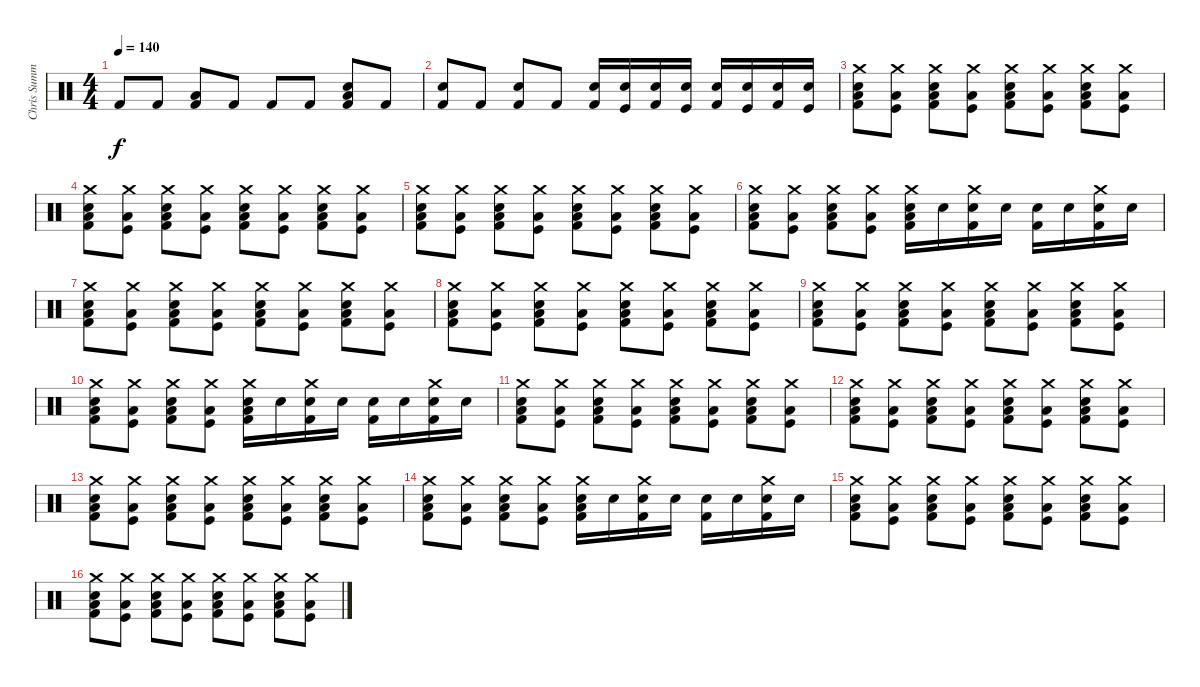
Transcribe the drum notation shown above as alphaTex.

\track ("Chris Summers" "Chris Summ") {instrument percussion}
\staff {score}
\articulation defaults
\ts (4 4)
\tempo 140
\clef neutral
\ks c "Kick (hit) 2".8{dy f} "Kick (hit) 2".8
("Low Floor Tom (hit)" "Kick (hit) 2").8 "Kick (hit) 2".8 "Kick (hit) 2".8 "Kick (hit) 2".8 ("Snare (hit) 2" "Low Floor Tom (hit)" "Kick (hit) 2").8 "Kick (hit) 2".8 |
("Snare (hit) 2" "Kick (hit) 2").8{volume 16} "Kick (hit) 2".8 ("Kick (hit) 2" "Snare (hit) 2").8 "Kick (hit) 2".8 ("Snare (hit) 2" "Kick (hit) 2").16 ("Snare (hit) 2" "Kick (hit)").16 ("Snare (hit) 2" "Kick (hit) 2").16 ("Snare (hit) 2" "Kick (hit)").16 ("Snare (hit) 2" "Kick (hit) 2").16 ("Snare (hit) 2" "Kick (hit)").16 ("Snare (hit) 2" "Kick (hit) 2").16 ("Snare (hit) 2" "Kick (hit)").16 |
("Crash medium (hit)" "Snare (hit) 2" "Low Floor Tom (hit)" "Kick (hit) 2").8 ("Crash medium (hit)" "Low Floor Tom (hit)" "Kick (hit)").8 ("Crash medium (hit)" "Snare (hit) 2" "Low Floor Tom (hit)" "Kick (hit) 2").8 ("Crash medium (hit)" "Low Floor Tom (hit)" "Kick (hit)").8 ("Crash medium (hit)" "Snare (hit) 2" "Low Floor Tom (hit)" "Kick (hit) 2").8 ("Crash medium (hit)" "Low Floor Tom (hit)" "Kick (hit)").8 ("Crash medium (hit)" "Snare (hit) 2" "Low Floor Tom (hit)" "Kick (hit) 2").8 ("Crash medium (hit)" "Low Floor Tom (hit)" "Kick (hit)").8 |
("Crash medium (hit)" "Snare (hit) 2" "Low Floor Tom (hit)" "Kick (hit) 2").8 ("Crash medium (hit)" "Low Floor Tom (hit)" "Kick (hit)").8 ("Crash medium (hit)" "Snare (hit) 2" "Low Floor Tom (hit)" "Kick (hit) 2").8 ("Crash medium (hit)" "Low Floor Tom (hit)" "Kick (hit)").8 ("Crash medium (hit)" "Snare (hit) 2" "Low Floor Tom (hit)" "Kick (hit) 2").8 ("Crash medium (hit)" "Low Floor Tom (hit)" "Kick (hit)").8 ("Crash medium (hit)" "Snare (hit) 2" "Low Floor Tom (hit)" "Kick (hit) 2").8 ("Crash medium (hit)" "Low Floor Tom (hit)" "Kick (hit)").8 |
("Crash medium (hit)" "Snare (hit) 2" "Low Floor Tom (hit)" "Kick (hit) 2").8 ("Crash medium (hit)" "Low Floor Tom (hit)" "Kick (hit)").8 ("Crash medium (hit)" "Snare (hit) 2" "Low Floor Tom (hit)" "Kick (hit) 2").8 ("Crash medium (hit)" "Low Floor Tom (hit)" "Kick (hit)").8 ("Crash medium (hit)" "Snare (hit) 2" "Low Floor Tom (hit)" "Kick (hit) 2").8 ("Crash medium (hit)" "Low Floor Tom (hit)" "Kick (hit)").8 ("Crash medium (hit)" "Snare (hit) 2" "Low Floor Tom (hit)" "Kick (hit) 2").8 ("Crash medium (hit)" "Low Floor Tom (hit)" "Kick (hit)").8 |
("Crash medium (hit)" "Snare (hit) 2" "Low Floor Tom (hit)" "Kick (hit) 2").8 ("Crash medium (hit)" "Low Floor Tom (hit)" "Kick (hit)").8 ("Crash medium (hit)" "Snare (hit) 2" "Low Floor Tom (hit)" "Kick (hit) 2").8 ("Crash medium (hit)" "Low Floor Tom (hit)" "Kick (hit)").8 ("Crash medium (hit)" "Snare (hit) 2" "Low Floor Tom (hit)" "Kick (hit) 2").16 "Snare (hit) 2".16 ("Crash medium (hit)" "Snare (hit) 2" "Kick (hit) 2").16 "Snare (hit) 2".16 ("Snare (hit) 2" "Kick (hit) 2").16 "Snare (hit) 2".16 ("Crash medium (hit)" "Kick (hit) 2" "Snare (hit) 2").16 "Snare (hit) 2".16 |
("Crash medium (hit)" "Snare (hit) 2" "Low Floor Tom (hit)" "Kick (hit) 2").8 ("Crash medium (hit)" "Low Floor Tom (hit)" "Kick (hit)").8 ("Crash medium (hit)" "Snare (hit) 2" "Low Floor Tom (hit)" "Kick (hit) 2").8 ("Crash medium (hit)" "Low Floor Tom (hit)" "Kick (hit)").8 ("Crash medium (hit)" "Snare (hit) 2" "Low Floor Tom (hit)" "Kick (hit) 2").8 ("Crash medium (hit)" "Low Floor Tom (hit)" "Kick (hit)").8 ("Crash medium (hit)" "Snare (hit) 2" "Low Floor Tom (hit)" "Kick (hit) 2").8 ("Crash medium (hit)" "Low Floor Tom (hit)" "Kick (hit)").8 |
("Crash medium (hit)" "Snare (hit) 2" "Low Floor Tom (hit)" "Kick (hit) 2").8 ("Crash medium (hit)" "Low Floor Tom (hit)" "Kick (hit)").8 ("Crash medium (hit)" "Snare (hit) 2" "Low Floor Tom (hit)" "Kick (hit) 2").8 ("Crash medium (hit)" "Low Floor Tom (hit)" "Kick (hit)").8 ("Crash medium (hit)" "Snare (hit) 2" "Low Floor Tom (hit)" "Kick (hit) 2").8 ("Crash medium (hit)" "Low Floor Tom (hit)" "Kick (hit)").8 ("Crash medium (hit)" "Snare (hit) 2" "Low Floor Tom (hit)" "Kick (hit) 2").8 ("Crash medium (hit)" "Low Floor Tom (hit)" "Kick (hit)").8 |
("Crash medium (hit)" "Snare (hit) 2" "Low Floor Tom (hit)" "Kick (hit) 2").8 ("Crash medium (hit)" "Low Floor Tom (hit)" "Kick (hit)").8 ("Crash medium (hit)" "Snare (hit) 2" "Low Floor Tom (hit)" "Kick (hit) 2").8 ("Crash medium (hit)" "Low Floor Tom (hit)" "Kick (hit)").8 ("Crash medium (hit)" "Snare (hit) 2" "Low Floor Tom (hit)" "Kick (hit) 2").8 ("Crash medium (hit)" "Low Floor Tom (hit)" "Kick (hit)").8 ("Crash medium (hit)" "Snare (hit) 2" "Low Floor Tom (hit)" "Kick (hit) 2").8 ("Crash medium (hit)" "Low Floor Tom (hit)" "Kick (hit)").8 |
("Crash medium (hit)" "Snare (hit) 2" "Low Floor Tom (hit)" "Kick (hit) 2").8 ("Crash medium (hit)" "Low Floor Tom (hit)" "Kick (hit)").8 ("Crash medium (hit)" "Snare (hit) 2" "Low Floor Tom (hit)" "Kick (hit) 2").8 ("Crash medium (hit)" "Low Floor Tom (hit)" "Kick (hit)").8 ("Crash medium (hit)" "Snare (hit) 2" "Low Floor Tom (hit)" "Kick (hit) 2").16 "Snare (hit) 2".16 ("Crash medium (hit)" "Snare (hit) 2" "Kick (hit) 2").16 "Snare (hit) 2".16 ("Snare (hit) 2" "Kick (hit) 2").16 "Snare (hit) 2".16 ("Crash medium (hit)" "Kick (hit) 2" "Snare (hit) 2").16 "Snare (hit) 2".16 |
("Crash medium (hit)" "Snare (hit) 2" "Low Floor Tom (hit)" "Kick (hit) 2").8 ("Crash medium (hit)" "Low Floor Tom (hit)" "Kick (hit)").8 ("Crash medium (hit)" "Snare (hit) 2" "Low Floor Tom (hit)" "Kick (hit) 2").8 ("Crash medium (hit)" "Low Floor Tom (hit)" "Kick (hit)").8 ("Crash medium (hit)" "Snare (hit) 2" "Low Floor Tom (hit)" "Kick (hit) 2").8 ("Crash medium (hit)" "Low Floor Tom (hit)" "Kick (hit)").8 ("Crash medium (hit)" "Snare (hit) 2" "Low Floor Tom (hit)" "Kick (hit) 2").8 ("Crash medium (hit)" "Low Floor Tom (hit)" "Kick (hit)").8 |
("Crash medium (hit)" "Snare (hit) 2" "Low Floor Tom (hit)" "Kick (hit) 2").8 ("Crash medium (hit)" "Low Floor Tom (hit)" "Kick (hit)").8 ("Crash medium (hit)" "Snare (hit) 2" "Low Floor Tom (hit)" "Kick (hit) 2").8 ("Crash medium (hit)" "Low Floor Tom (hit)" "Kick (hit)").8 ("Crash medium (hit)" "Snare (hit) 2" "Low Floor Tom (hit)" "Kick (hit) 2").8 ("Crash medium (hit)" "Low Floor Tom (hit)" "Kick (hit)").8 ("Crash medium (hit)" "Snare (hit) 2" "Low Floor Tom (hit)" "Kick (hit) 2").8 ("Crash medium (hit)" "Low Floor Tom (hit)" "Kick (hit)").8 |
("Crash medium (hit)" "Snare (hit) 2" "Low Floor Tom (hit)" "Kick (hit) 2").8 ("Crash medium (hit)" "Low Floor Tom (hit)" "Kick (hit)").8 ("Crash medium (hit)" "Snare (hit) 2" "Low Floor Tom (hit)" "Kick (hit) 2").8 ("Crash medium (hit)" "Low Floor Tom (hit)" "Kick (hit)").8 ("Crash medium (hit)" "Snare (hit) 2" "Low Floor Tom (hit)" "Kick (hit) 2").8 ("Crash medium (hit)" "Low Floor Tom (hit)" "Kick (hit)").8 ("Crash medium (hit)" "Snare (hit) 2" "Low Floor Tom (hit)" "Kick (hit) 2").8 ("Crash medium (hit)" "Low Floor Tom (hit)" "Kick (hit)").8 |
("Crash medium (hit)" "Snare (hit) 2" "Low Floor Tom (hit)" "Kick (hit) 2").8 ("Crash medium (hit)" "Low Floor Tom (hit)" "Kick (hit)").8 ("Crash medium (hit)" "Snare (hit) 2" "Low Floor Tom (hit)" "Kick (hit) 2").8 ("Crash medium (hit)" "Low Floor Tom (hit)" "Kick (hit)").8 ("Crash medium (hit)" "Snare (hit) 2" "Low Floor Tom (hit)" "Kick (hit) 2").16 "Snare (hit) 2".16 ("Crash medium (hit)" "Snare (hit) 2" "Kick (hit) 2").16 "Snare (hit) 2".16 ("Snare (hit) 2" "Kick (hit) 2").16 "Snare (hit) 2".16 ("Crash medium (hit)" "Kick (hit) 2" "Snare (hit) 2").16 "Snare (hit) 2".16 |
("Crash medium (hit)" "Snare (hit) 2" "Low Floor Tom (hit)" "Kick (hit) 2").8 ("Crash medium (hit)" "Low Floor Tom (hit)" "Kick (hit)").8 ("Crash medium (hit)" "Snare (hit) 2" "Low Floor Tom (hit)" "Kick (hit) 2").8 ("Crash medium (hit)" "Low Floor Tom (hit)" "Kick (hit)").8 ("Crash medium (hit)" "Snare (hit) 2" "Low Floor Tom (hit)" "Kick (hit) 2").8 ("Crash medium (hit)" "Low Floor Tom (hit)" "Kick (hit)").8 ("Crash medium (hit)" "Snare (hit) 2" "Low Floor Tom (hit)" "Kick (hit) 2").8 ("Crash medium (hit)" "Low Floor Tom (hit)" "Kick (hit)").8 |
("Crash medium (hit)" "Snare (hit) 2" "Low Floor Tom (hit)" "Kick (hit) 2").8 ("Crash medium (hit)" "Low Floor Tom (hit)" "Kick (hit)").8 ("Crash medium (hit)" "Snare (hit) 2" "Low Floor Tom (hit)" "Kick (hit) 2").8 ("Crash medium (hit)" "Low Floor Tom (hit)" "Kick (hit)").8 ("Crash medium (hit)" "Snare (hit) 2" "Low Floor Tom (hit)" "Kick (hit) 2").8 ("Crash medium (hit)" "Low Floor Tom (hit)" "Kick (hit)").8 ("Crash medium (hit)" "Snare (hit) 2" "Low Floor Tom (hit)" "Kick (hit) 2").8 ("Crash medium (hit)" "Low Floor Tom (hit)" "Kick (hit)").8
